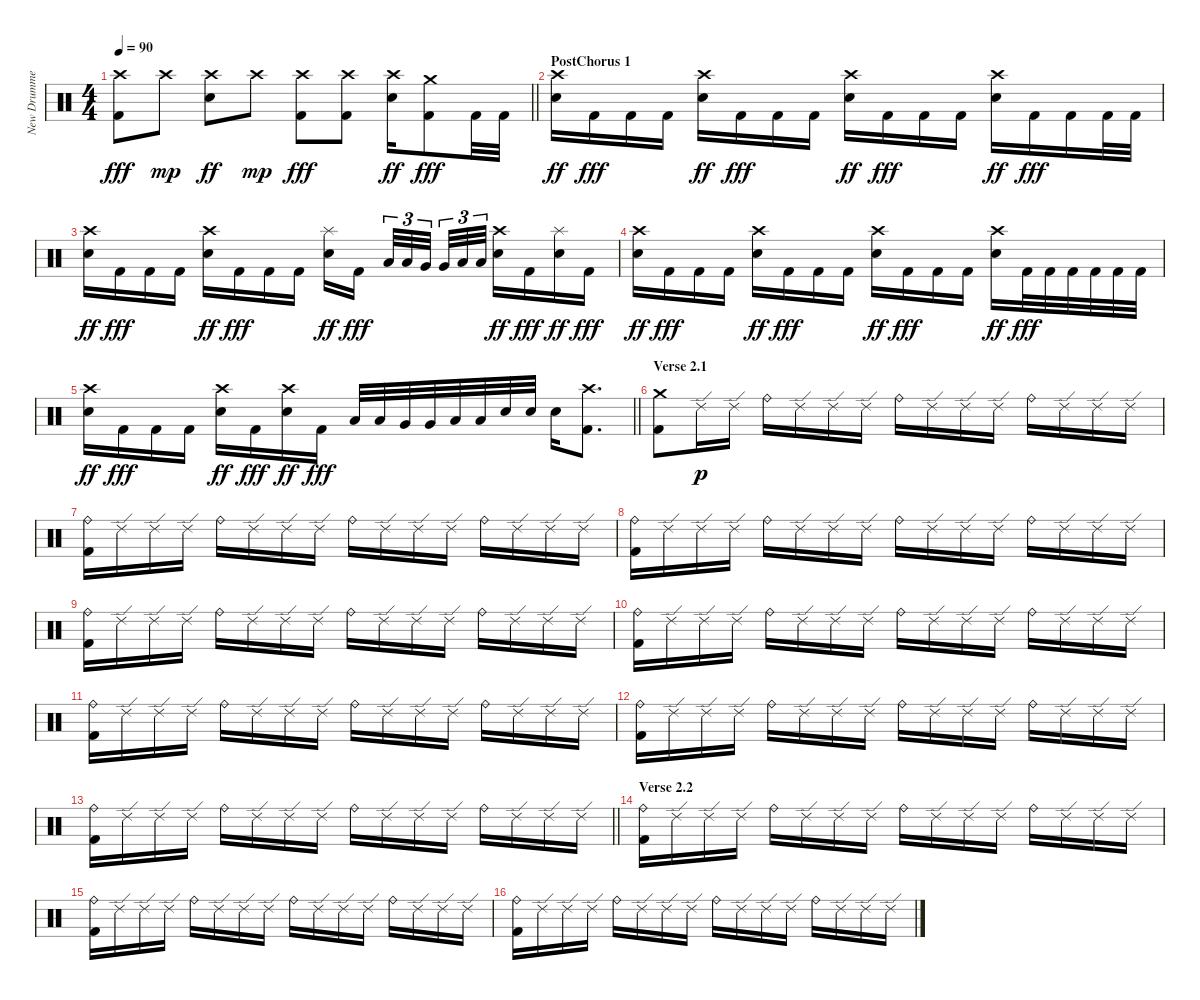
\track ("New Drummer" "New Drumme") {instrument percussion}
\staff {score}
\articulation defaults
\ts (4 4)
\tempo 90
\clef neutral
\barLineRight lightlight
\ks c
("Crash high (hit)" "Kick (hit) 2").8{dy fff} "Crash high (hit)".8{dy mp} ("Crash high (hit)" "Electric Snare (hit)").8{dy ff} "Crash high (hit)".8{dy mp} ("Crash high (hit)" "Kick (hit) 2").8{dy fff} ("Crash high (hit)" "Kick (hit) 2").8 ("Crash high (hit)" "Electric Snare (hit)").16{dy ff} ("Crash medium (hit)" "Kick (hit) 2").8{dy fff} "Kick (hit) 2".32 "Kick (hit) 2".32 |
\section ("" "PostChorus 1")
("Crash high (hit)" "Electric Snare (hit)").16{dy ff} "Kick (hit) 2".16{dy fff} "Kick (hit) 2".16 "Kick (hit) 2".16 ("Crash high (hit)" "Electric Snare (hit)").16{dy ff} "Kick (hit) 2".16{dy fff} "Kick (hit) 2".16 "Kick (hit) 2".16 ("Crash high (hit)" "Electric Snare (hit)").16{dy ff} "Kick (hit) 2".16{dy fff} "Kick (hit) 2".16 "Kick (hit) 2".16 ("Crash high (hit)" "Electric Snare (hit)").16{dy ff} "Kick (hit) 2".16{dy fff} "Kick (hit) 2".16 "Kick (hit) 2".32 "Kick (hit) 2".32 |
("Crash high (hit)" "Electric Snare (hit)").16{dy ff} "Kick (hit) 2".16{dy fff} "Kick (hit) 2".16 "Kick (hit) 2".16 ("Crash high (hit)" "Electric Snare (hit)").16{dy ff} "Kick (hit) 2".16{dy fff} "Kick (hit) 2".16 "Kick (hit) 2".16 ("Splash (hit)" "Electric Snare (hit)").16{dy ff} "Kick (hit) 2".16{dy fff beam splitsecondary} "Low Tom (hit)".32{tu (3 2)} "Low Tom (hit)".32{tu (3 2)} "Very Low Tom (hit)".32{tu (3 2) beam splitsecondary} "Very Low Tom (hit)".32{tu (3 2)} "Low Floor Tom (hit)".32{tu (3 2)} "Low Floor Tom (hit)".32{tu (3 2)} ("Crash high (hit)" "Electric Snare (hit)").16{dy ff} "Kick (hit) 2".16{dy fff} ("Splash (hit)" "Electric Snare (hit)").16{dy ff} "Kick (hit) 2".16{dy fff} |
("Crash high (hit)" "Electric Snare (hit)").16{dy ff} "Kick (hit) 2".16{dy fff} "Kick (hit) 2".16 "Kick (hit) 2".16 ("Crash high (hit)" "Electric Snare (hit)").16{dy ff} "Kick (hit) 2".16{dy fff} "Kick (hit) 2".16 "Kick (hit) 2".16 ("Crash high (hit)" "Electric Snare (hit)").16{dy ff} "Kick (hit) 2".16{dy fff} "Kick (hit) 2".16 "Kick (hit) 2".16 ("Crash high (hit)" "Electric Snare (hit)").16{dy ff} "Kick (hit) 2".32{dy fff} "Kick (hit) 2".32 "Kick (hit) 2".32 "Kick (hit) 2".32 "Kick (hit) 2".32 "Kick (hit) 2".32 |
\barLineRight lightlight
("Crash high (hit)" "Electric Snare (hit)").16{dy ff} "Kick (hit) 2".16{dy fff} "Kick (hit) 2".16 "Kick (hit) 2".16 ("Crash high (hit)" "Electric Snare (hit)").16{dy ff} "Kick (hit) 2".16{dy fff} ("Crash high (hit)" "Electric Snare (hit)").16{dy ff} "Kick (hit) 2".16{dy fff} "Low Tom (hit)".32 "Low Tom (hit)".32 "Very Low Tom (hit)".32 "Very Low Tom (hit)".32 "Low Floor Tom (hit)".32 "Low Floor Tom (hit)".32 "Electric Snare (hit)".32 "Electric Snare (hit)".32 "Electric Snare (hit)".16 ("Crash high (hit)" "Kick (hit) 2").8{d} |
\section ("" "Verse 2.1")
("Crash medium (hit)" "Kick (hit) 2").8 "Ride (edge) 2".16{dy p} "Ride (edge) 2".16 "Ride (bell)".16 "Ride (edge) 2".16 "Ride (edge) 2".16 "Ride (edge) 2".16 "Ride (bell)".16 "Ride (edge) 2".16 "Ride (edge) 2".16 "Ride (edge) 2".16 "Ride (bell)".16 "Ride (edge) 2".16 "Ride (edge) 2".16 "Ride (edge) 2".16 |
("Ride (bell)" "Kick (hit) 2").16 "Ride (edge) 2".16 "Ride (edge) 2".16 "Ride (edge) 2".16 "Ride (bell)".16 "Ride (edge) 2".16 "Ride (edge) 2".16 "Ride (edge) 2".16 "Ride (bell)".16 "Ride (edge) 2".16 "Ride (edge) 2".16 "Ride (edge) 2".16 "Ride (bell)".16 "Ride (edge) 2".16 "Ride (edge) 2".16 "Ride (edge) 2".16 |
("Ride (bell)" "Kick (hit) 2").16 "Ride (edge) 2".16 "Ride (edge) 2".16 "Ride (edge) 2".16 "Ride (bell)".16 "Ride (edge) 2".16 "Ride (edge) 2".16 "Ride (edge) 2".16 "Ride (bell)".16 "Ride (edge) 2".16 "Ride (edge) 2".16 "Ride (edge) 2".16 "Ride (bell)".16 "Ride (edge) 2".16 "Ride (edge) 2".16 "Ride (edge) 2".16 |
("Ride (bell)" "Kick (hit) 2").16 "Ride (edge) 2".16 "Ride (edge) 2".16 "Ride (edge) 2".16 "Ride (bell)".16 "Ride (edge) 2".16 "Ride (edge) 2".16 "Ride (edge) 2".16 "Ride (bell)".16 "Ride (edge) 2".16 "Ride (edge) 2".16 "Ride (edge) 2".16 "Ride (bell)".16 "Ride (edge) 2".16 "Ride (edge) 2".16 "Ride (edge) 2".16 |
("Ride (bell)" "Kick (hit) 2").16 "Ride (edge) 2".16 "Ride (edge) 2".16 "Ride (edge) 2".16 "Ride (bell)".16 "Ride (edge) 2".16 "Ride (edge) 2".16 "Ride (edge) 2".16 "Ride (bell)".16 "Ride (edge) 2".16 "Ride (edge) 2".16 "Ride (edge) 2".16 "Ride (bell)".16 "Ride (edge) 2".16 "Ride (edge) 2".16 "Ride (edge) 2".16 |
("Ride (bell)" "Kick (hit) 2").16 "Ride (edge) 2".16 "Ride (edge) 2".16 "Ride (edge) 2".16 "Ride (bell)".16 "Ride (edge) 2".16 "Ride (edge) 2".16 "Ride (edge) 2".16 "Ride (bell)".16 "Ride (edge) 2".16 "Ride (edge) 2".16 "Ride (edge) 2".16 "Ride (bell)".16 "Ride (edge) 2".16 "Ride (edge) 2".16 "Ride (edge) 2".16 |
("Ride (bell)" "Kick (hit) 2").16 "Ride (edge) 2".16 "Ride (edge) 2".16 "Ride (edge) 2".16 "Ride (bell)".16 "Ride (edge) 2".16 "Ride (edge) 2".16 "Ride (edge) 2".16 "Ride (bell)".16 "Ride (edge) 2".16 "Ride (edge) 2".16 "Ride (edge) 2".16 "Ride (bell)".16 "Ride (edge) 2".16 "Ride (edge) 2".16 "Ride (edge) 2".16 |
\barLineRight lightlight
("Ride (bell)" "Kick (hit) 2").16 "Ride (edge) 2".16 "Ride (edge) 2".16 "Ride (edge) 2".16 "Ride (bell)".16 "Ride (edge) 2".16 "Ride (edge) 2".16 "Ride (edge) 2".16 "Ride (bell)".16 "Ride (edge) 2".16 "Ride (edge) 2".16 "Ride (edge) 2".16 "Ride (bell)".16 "Ride (edge) 2".16 "Ride (edge) 2".16 "Ride (edge) 2".16 |
\section ("" "Verse 2.2")
("Ride (bell)" "Kick (hit) 2").16 "Ride (edge) 2".16 "Ride (edge) 2".16 "Ride (edge) 2".16 "Ride (bell)".16 "Ride (edge) 2".16 "Ride (edge) 2".16 "Ride (edge) 2".16 "Ride (bell)".16 "Ride (edge) 2".16 "Ride (edge) 2".16 "Ride (edge) 2".16 "Ride (bell)".16 "Ride (edge) 2".16 "Ride (edge) 2".16 "Ride (edge) 2".16 |
("Ride (bell)" "Kick (hit) 2").16 "Ride (edge) 2".16 "Ride (edge) 2".16 "Ride (edge) 2".16 "Ride (bell)".16 "Ride (edge) 2".16 "Ride (edge) 2".16 "Ride (edge) 2".16 "Ride (bell)".16 "Ride (edge) 2".16 "Ride (edge) 2".16 "Ride (edge) 2".16 "Ride (bell)".16 "Ride (edge) 2".16 "Ride (edge) 2".16 "Ride (edge) 2".16 |
("Ride (bell)" "Kick (hit) 2").16 "Ride (edge) 2".16 "Ride (edge) 2".16 "Ride (edge) 2".16 "Ride (bell)".16 "Ride (edge) 2".16 "Ride (edge) 2".16 "Ride (edge) 2".16 "Ride (bell)".16 "Ride (edge) 2".16 "Ride (edge) 2".16 "Ride (edge) 2".16 "Ride (bell)".16 "Ride (edge) 2".16 "Ride (edge) 2".16 "Ride (edge) 2".16
